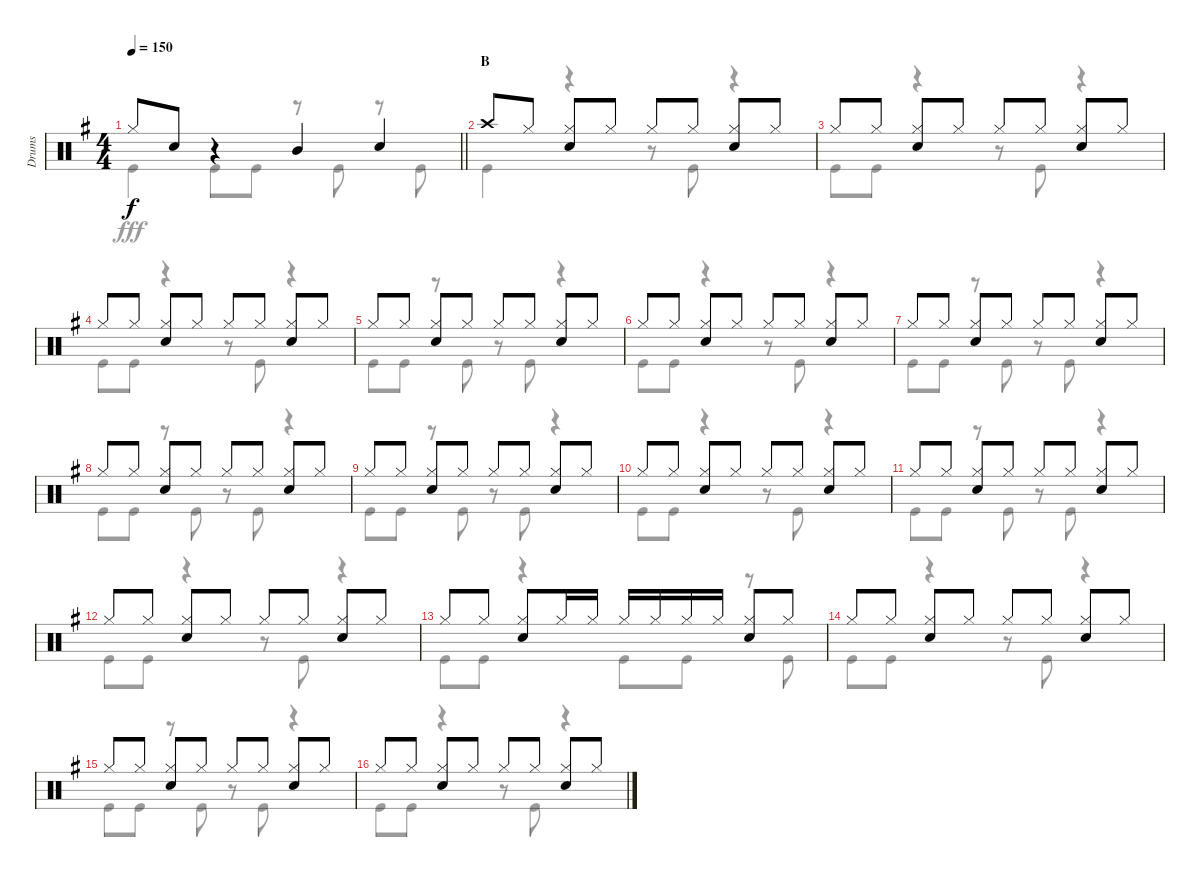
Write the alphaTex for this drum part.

\track ("Drums" "Drums") {instrument percussion}
\staff {score}
\articulation defaults
\voice
\ts (4 4)
\tempo 150
\clef neutral
\barLineRight lightlight
\ks g "Hi-Hat (closed)".8{dy f} "Snare (hit) 2".8
r.4 "Mid Tom (hit)".4 "Snare (hit) 2".4 |
\section ("" "B")
"Crash high (hit)".8 "Hi-Hat (closed)".8 ("Hi-Hat (closed)" "Snare (hit) 2").8 "Hi-Hat (closed)".8 "Hi-Hat (closed)".8 "Hi-Hat (closed)".8 ("Hi-Hat (closed)" "Snare (hit) 2").8 "Hi-Hat (closed)".8 |
"Hi-Hat (closed)".8 "Hi-Hat (closed)".8 ("Hi-Hat (closed)" "Snare (hit) 2").8 "Hi-Hat (closed)".8 "Hi-Hat (closed)".8 "Hi-Hat (closed)".8 ("Hi-Hat (closed)" "Snare (hit) 2").8 "Hi-Hat (closed)".8 |
"Hi-Hat (closed)".8 "Hi-Hat (closed)".8 ("Hi-Hat (closed)" "Snare (hit) 2").8 "Hi-Hat (closed)".8 "Hi-Hat (closed)".8 "Hi-Hat (closed)".8 ("Hi-Hat (closed)" "Snare (hit) 2").8 "Hi-Hat (closed)".8 |
"Hi-Hat (closed)".8 "Hi-Hat (closed)".8 ("Hi-Hat (closed)" "Snare (hit) 2").8 "Hi-Hat (closed)".8 "Hi-Hat (closed)".8 "Hi-Hat (closed)".8 ("Hi-Hat (closed)" "Snare (hit) 2").8 "Hi-Hat (closed)".8 |
"Hi-Hat (closed)".8 "Hi-Hat (closed)".8 ("Hi-Hat (closed)" "Snare (hit) 2").8 "Hi-Hat (closed)".8 "Hi-Hat (closed)".8 "Hi-Hat (closed)".8 ("Hi-Hat (closed)" "Snare (hit) 2").8 "Hi-Hat (closed)".8 |
"Hi-Hat (closed)".8 "Hi-Hat (closed)".8 ("Hi-Hat (closed)" "Snare (hit) 2").8 "Hi-Hat (closed)".8 "Hi-Hat (closed)".8 "Hi-Hat (closed)".8 ("Hi-Hat (closed)" "Snare (hit) 2").8 "Hi-Hat (closed)".8 |
"Hi-Hat (closed)".8 "Hi-Hat (closed)".8 ("Hi-Hat (closed)" "Snare (hit) 2").8 "Hi-Hat (closed)".8 "Hi-Hat (closed)".8 "Hi-Hat (closed)".8 ("Hi-Hat (closed)" "Snare (hit) 2").8 "Hi-Hat (closed)".8 |
"Hi-Hat (closed)".8 "Hi-Hat (closed)".8 ("Hi-Hat (closed)" "Snare (hit) 2").8 "Hi-Hat (closed)".8 "Hi-Hat (closed)".8 "Hi-Hat (closed)".8 ("Hi-Hat (closed)" "Snare (hit) 2").8 "Hi-Hat (closed)".8 |
"Hi-Hat (closed)".8 "Hi-Hat (closed)".8 ("Hi-Hat (closed)" "Snare (hit) 2").8 "Hi-Hat (closed)".8 "Hi-Hat (closed)".8 "Hi-Hat (closed)".8 ("Hi-Hat (closed)" "Snare (hit) 2").8 "Hi-Hat (closed)".8 |
"Hi-Hat (closed)".8 "Hi-Hat (closed)".8 ("Hi-Hat (closed)" "Snare (hit) 2").8 "Hi-Hat (closed)".8 "Hi-Hat (closed)".8 "Hi-Hat (closed)".8 ("Hi-Hat (closed)" "Snare (hit) 2").8 "Hi-Hat (closed)".8 |
"Hi-Hat (closed)".8 "Hi-Hat (closed)".8 ("Hi-Hat (closed)" "Snare (hit) 2").8 "Hi-Hat (closed)".8 "Hi-Hat (closed)".8 "Hi-Hat (closed)".8 ("Hi-Hat (closed)" "Snare (hit) 2").8 "Hi-Hat (closed)".8 |
"Hi-Hat (closed)".8 "Hi-Hat (closed)".8 ("Hi-Hat (closed)" "Snare (hit) 2").8 "Hi-Hat (closed)".16 "Hi-Hat (closed)".16 "Hi-Hat (closed)".16 "Hi-Hat (closed)".16 "Hi-Hat (closed)".16 "Hi-Hat (closed)".16 ("Hi-Hat (closed)" "Snare (hit) 2").8 "Hi-Hat (closed)".8 |
"Hi-Hat (closed)".8 "Hi-Hat (closed)".8 ("Hi-Hat (closed)" "Snare (hit) 2").8 "Hi-Hat (closed)".8 "Hi-Hat (closed)".8 "Hi-Hat (closed)".8 ("Hi-Hat (closed)" "Snare (hit) 2").8 "Hi-Hat (closed)".8 |
"Hi-Hat (closed)".8 "Hi-Hat (closed)".8 ("Hi-Hat (closed)" "Snare (hit) 2").8 "Hi-Hat (closed)".8 "Hi-Hat (closed)".8 "Hi-Hat (closed)".8 ("Hi-Hat (closed)" "Snare (hit) 2").8 "Hi-Hat (closed)".8 |
"Hi-Hat (closed)".8 "Hi-Hat (closed)".8 ("Hi-Hat (closed)" "Snare (hit) 2").8 "Hi-Hat (closed)".8 "Hi-Hat (closed)".8 "Hi-Hat (closed)".8 ("Hi-Hat (closed)" "Snare (hit) 2").8 "Hi-Hat (closed)".8
\voice
\clef neutral
\ottava regular
\simile none
\barLineRight lightlight
\ks g "Kick (hit)".4{dy fff} "Kick (hit)".8 "Kick (hit)".8
r.8 "Kick (hit)".8 r.8 "Kick (hit)".8 |
"Kick (hit)".4 r.4 r.8 "Kick (hit)".8 r.4 |
"Kick (hit)".8 "Kick (hit)".8 r.4 r.8 "Kick (hit)".8 r.4 |
"Kick (hit)".8 "Kick (hit)".8 r.4 r.8 "Kick (hit)".8 r.4 |
"Kick (hit)".8 "Kick (hit)".8 r.8 "Kick (hit)".8 r.8 "Kick (hit)".8 r.4 |
"Kick (hit)".8 "Kick (hit)".8 r.4 r.8 "Kick (hit)".8 r.4 |
"Kick (hit)".8 "Kick (hit)".8 r.8 "Kick (hit)".8 r.8 "Kick (hit)".8 r.4 |
"Kick (hit)".8 "Kick (hit)".8 r.8 "Kick (hit)".8 r.8 "Kick (hit)".8 r.4 |
"Kick (hit)".8 "Kick (hit)".8 r.8 "Kick (hit)".8 r.8 "Kick (hit)".8 r.4 |
"Kick (hit)".8 "Kick (hit)".8 r.4 r.8 "Kick (hit)".8 r.4 |
"Kick (hit)".8 "Kick (hit)".8 r.8 "Kick (hit)".8 r.8 "Kick (hit)".8 r.4 |
"Kick (hit)".8 "Kick (hit)".8 r.4 r.8 "Kick (hit)".8 r.4 |
"Kick (hit)".8 "Kick (hit)".8 r.4 "Kick (hit)".8 "Kick (hit)".8 r.8 "Kick (hit)".8 |
"Kick (hit)".8 "Kick (hit)".8 r.4 r.8 "Kick (hit)".8 r.4 |
"Kick (hit)".8 "Kick (hit)".8 r.8 "Kick (hit)".8 r.8 "Kick (hit)".8 r.4 |
"Kick (hit)".8 "Kick (hit)".8 r.4 r.8 "Kick (hit)".8 r.4
